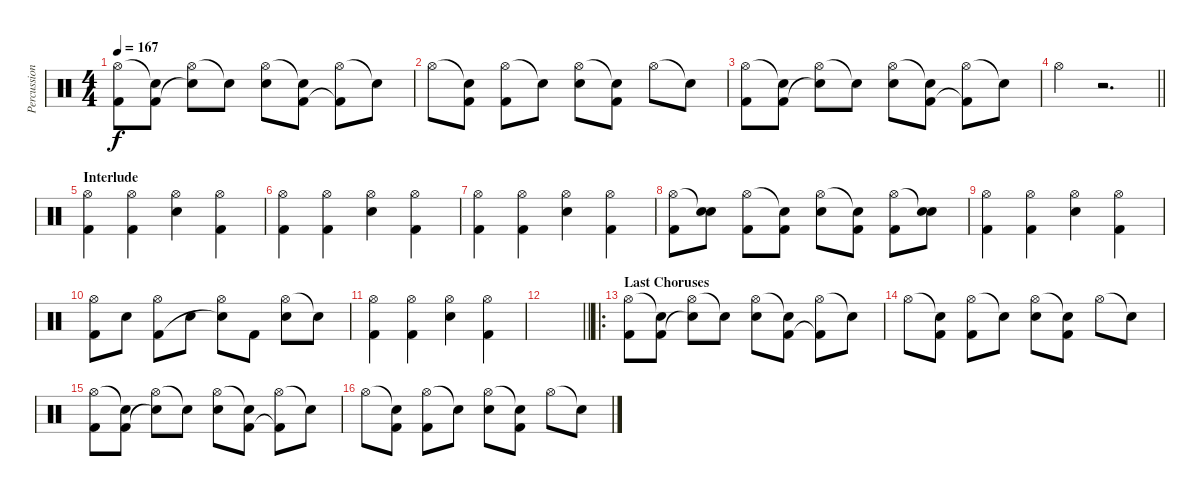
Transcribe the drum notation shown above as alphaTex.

\track ("Percussion" "Percussion") {instrument percussion}
\staff {score}
\articulation defaults
\ts (4 4)
\tempo 167
\clef neutral
\ks c
("Hi-Hat (open)" "Kick (hit) 2").8{dy f} ("Snare (hit)"{t} "Kick (hit) 2").8 ("Hi-Hat (open)" "Snare (hit)"{t}).8 "Snare (hit)"{t}.8 ("Hi-Hat (open)" "Electric Snare (hit)").8 ("Snare (hit)"{t} "Kick (hit) 2").8 ("Hi-Hat (open)" "Kick (hit) 2"{t}).8 "Snare (hit)"{t}.8 |
"Hi-Hat (open)".8 ("Snare (hit)"{t} "Kick (hit) 2").8 ("Hi-Hat (open)" "Kick (hit) 2").8 "Snare (hit)"{t}.8 ("Hi-Hat (open)" "Electric Snare (hit)").8 ("Snare (hit)"{t} "Kick (hit) 2").8 "Hi-Hat (open)".8 "Snare (hit)"{t}.8 |
("Hi-Hat (open)" "Kick (hit) 2").8 ("Snare (hit)"{t} "Kick (hit) 2").8 ("Hi-Hat (open)" "Snare (hit)"{t}).8 "Snare (hit)"{t}.8 ("Hi-Hat (open)" "Electric Snare (hit)").8 ("Snare (hit)"{t} "Kick (hit) 2").8 ("Hi-Hat (open)" "Kick (hit) 2"{t}).8 "Snare (hit)"{t}.8 |
\barLineRight lightlight "Hi-Hat (open)".4
r.2{d} |
\section ("" "Interlude")
("Hi-Hat (open)" "Kick (hit) 2").4 ("Hi-Hat (open)" "Kick (hit) 2").4 ("Hi-Hat (open)" "Electric Snare (hit)").4 ("Hi-Hat (open)" "Kick (hit) 2").4 |
("Hi-Hat (open)" "Kick (hit) 2").4 ("Hi-Hat (open)" "Kick (hit) 2").4 ("Hi-Hat (open)" "Electric Snare (hit)").4 ("Hi-Hat (open)" "Kick (hit) 2").4 |
("Hi-Hat (open)" "Kick (hit) 2").4 ("Hi-Hat (open)" "Kick (hit) 2").4 ("Hi-Hat (open)" "Electric Snare (hit)").4 ("Hi-Hat (open)" "Kick (hit) 2").4 |
("Hi-Hat (open)" "Kick (hit) 2").8 ("Snare (hit)"{t} "Electric Snare (hit)").8 ("Hi-Hat (open)" "Kick (hit) 2").8 ("Snare (hit)"{t} "Kick (hit) 2").8 ("Hi-Hat (open)" "Electric Snare (hit)").8 ("Snare (hit)"{t} "Kick (hit) 2").8 ("Hi-Hat (open)" "Kick (hit) 2").8 ("Snare (hit)"{t} "Electric Snare (hit)").8 |
("Hi-Hat (open)" "Kick (hit) 2").4 ("Hi-Hat (open)" "Kick (hit) 2").4 ("Hi-Hat (open)" "Electric Snare (hit)").4 ("Hi-Hat (open)" "Kick (hit) 2").4 |
("Hi-Hat (open)" "Kick (hit) 2").8 "Electric Snare (hit)".8 ("Hi-Hat (open)" "Kick (hit) 2").8 "Electric Snare (hit)".8 ("Hi-Hat (open)" "Snare (hit)"{t}).8 "Kick (hit) 2".8 ("Hi-Hat (open)" "Electric Snare (hit)").8 "Snare (hit)"{t}.8 |
("Hi-Hat (open)" "Kick (hit) 2").4 ("Hi-Hat (open)" "Kick (hit) 2").4 ("Hi-Hat (open)" "Electric Snare (hit)").4 ("Hi-Hat (open)" "Kick (hit) 2").4 |
\barLineRight lightlight
|
\ro
\section ("" "Last Choruses")
("Hi-Hat (open)" "Kick (hit) 2").8 ("Snare (hit)"{t} "Kick (hit) 2").8 ("Hi-Hat (open)" "Snare (hit)"{t}).8 "Snare (hit)"{t}.8 ("Hi-Hat (open)" "Electric Snare (hit)").8 ("Snare (hit)"{t} "Kick (hit) 2").8 ("Hi-Hat (open)" "Kick (hit) 2"{t}).8 "Snare (hit)"{t}.8 |
"Hi-Hat (open)".8 ("Snare (hit)"{t} "Kick (hit) 2").8 ("Hi-Hat (open)" "Kick (hit) 2").8 "Snare (hit)"{t}.8 ("Hi-Hat (open)" "Electric Snare (hit)").8 ("Snare (hit)"{t} "Kick (hit) 2").8 "Hi-Hat (open)".8 "Snare (hit)"{t}.8 |
("Hi-Hat (open)" "Kick (hit) 2").8 ("Snare (hit)"{t} "Kick (hit) 2").8 ("Hi-Hat (open)" "Snare (hit)"{t}).8 "Snare (hit)"{t}.8 ("Hi-Hat (open)" "Electric Snare (hit)").8 ("Snare (hit)"{t} "Kick (hit) 2").8 ("Hi-Hat (open)" "Kick (hit) 2"{t}).8 "Snare (hit)"{t}.8 |
"Hi-Hat (open)".8 ("Snare (hit)"{t} "Kick (hit) 2").8 ("Hi-Hat (open)" "Kick (hit) 2").8 "Snare (hit)"{t}.8 ("Hi-Hat (open)" "Electric Snare (hit)").8 ("Snare (hit)"{t} "Kick (hit) 2").8 "Hi-Hat (open)".8 "Snare (hit)"{t}.8
